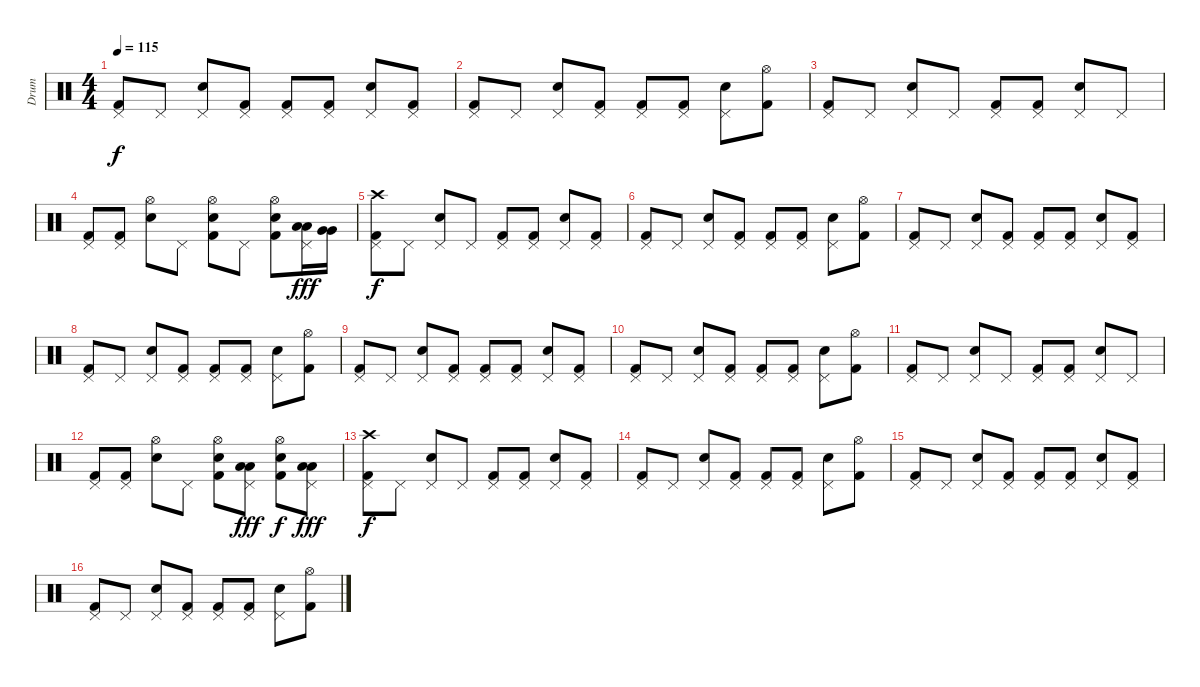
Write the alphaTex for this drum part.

\track ("Drum" "Drum") {instrument percussion}
\staff {score}
\articulation defaults
\ts (4 4)
\tempo 115
\clef neutral
\ks c
("Pedal Hi-Hat (hit)" "Kick (hit) 2").8{dy f} "Pedal Hi-Hat (hit)".8 ("Pedal Hi-Hat (hit)" "Electric Snare (hit)").8 ("Pedal Hi-Hat (hit)" "Kick (hit) 2").8 ("Pedal Hi-Hat (hit)" "Kick (hit) 2").8 ("Pedal Hi-Hat (hit)" "Kick (hit) 2").8 ("Pedal Hi-Hat (hit)" "Electric Snare (hit)").8 ("Pedal Hi-Hat (hit)" "Kick (hit) 2").8 |
("Pedal Hi-Hat (hit)" "Kick (hit) 2").8 "Pedal Hi-Hat (hit)".8 ("Pedal Hi-Hat (hit)" "Electric Snare (hit)").8 ("Pedal Hi-Hat (hit)" "Kick (hit) 2").8 ("Pedal Hi-Hat (hit)" "Kick (hit) 2").8 ("Pedal Hi-Hat (hit)" "Kick (hit) 2").8 ("Pedal Hi-Hat (hit)" "Electric Snare (hit)").8 ("Hi-Hat (open)" "Kick (hit) 2").8 |
("Pedal Hi-Hat (hit)" "Kick (hit) 2").8 "Pedal Hi-Hat (hit)".8 ("Pedal Hi-Hat (hit)" "Electric Snare (hit)").8 "Pedal Hi-Hat (hit)".8 ("Pedal Hi-Hat (hit)" "Kick (hit) 2").8 ("Pedal Hi-Hat (hit)" "Kick (hit) 2").8 ("Pedal Hi-Hat (hit)" "Electric Snare (hit)").8 "Pedal Hi-Hat (hit)".8 |
("Pedal Hi-Hat (hit)" "Kick (hit) 2").8 ("Pedal Hi-Hat (hit)" "Kick (hit) 2").8 ("Hi-Hat (open)" "Electric Snare (hit)").8 "Pedal Hi-Hat (hit)".8 ("Hi-Hat (open)" "Electric Snare (hit)" "Kick (hit) 2").8 "Pedal Hi-Hat (hit)".8 ("Hi-Hat (open)" "Electric Snare (hit)" "Kick (hit) 2").8 ("Pedal Hi-Hat (hit)" "Low Tom (hit)" "Low Tom (hit)").16{dy fff} ("Very Low Tom (hit)" "Very Low Tom (hit)").16 |
("Pedal Hi-Hat (hit)" "Crash high (hit)" "Kick (hit) 2").8{dy f} "Pedal Hi-Hat (hit)".8 ("Pedal Hi-Hat (hit)" "Electric Snare (hit)").8 "Pedal Hi-Hat (hit)".8 ("Pedal Hi-Hat (hit)" "Kick (hit) 2").8 ("Pedal Hi-Hat (hit)" "Kick (hit) 2").8 ("Pedal Hi-Hat (hit)" "Electric Snare (hit)").8 ("Pedal Hi-Hat (hit)" "Kick (hit) 2").8 |
("Pedal Hi-Hat (hit)" "Kick (hit) 2").8 "Pedal Hi-Hat (hit)".8 ("Pedal Hi-Hat (hit)" "Electric Snare (hit)").8 ("Pedal Hi-Hat (hit)" "Kick (hit) 2").8 ("Pedal Hi-Hat (hit)" "Kick (hit) 2").8 ("Pedal Hi-Hat (hit)" "Kick (hit) 2").8 ("Pedal Hi-Hat (hit)" "Electric Snare (hit)").8 ("Hi-Hat (open)" "Kick (hit) 2").8 |
("Pedal Hi-Hat (hit)" "Kick (hit) 2").8 "Pedal Hi-Hat (hit)".8 ("Pedal Hi-Hat (hit)" "Electric Snare (hit)").8 ("Pedal Hi-Hat (hit)" "Kick (hit) 2").8 ("Pedal Hi-Hat (hit)" "Kick (hit) 2").8 ("Pedal Hi-Hat (hit)" "Kick (hit) 2").8 ("Pedal Hi-Hat (hit)" "Electric Snare (hit)").8 ("Pedal Hi-Hat (hit)" "Kick (hit) 2").8 |
("Pedal Hi-Hat (hit)" "Kick (hit) 2").8 "Pedal Hi-Hat (hit)".8 ("Pedal Hi-Hat (hit)" "Electric Snare (hit)").8 ("Pedal Hi-Hat (hit)" "Kick (hit) 2").8 ("Pedal Hi-Hat (hit)" "Kick (hit) 2").8 ("Pedal Hi-Hat (hit)" "Kick (hit) 2").8 ("Pedal Hi-Hat (hit)" "Electric Snare (hit)").8 ("Hi-Hat (open)" "Kick (hit) 2").8 |
("Pedal Hi-Hat (hit)" "Kick (hit) 2").8 "Pedal Hi-Hat (hit)".8 ("Pedal Hi-Hat (hit)" "Electric Snare (hit)").8 ("Pedal Hi-Hat (hit)" "Kick (hit) 2").8 ("Pedal Hi-Hat (hit)" "Kick (hit) 2").8 ("Pedal Hi-Hat (hit)" "Kick (hit) 2").8 ("Pedal Hi-Hat (hit)" "Electric Snare (hit)").8 ("Pedal Hi-Hat (hit)" "Kick (hit) 2").8 |
("Pedal Hi-Hat (hit)" "Kick (hit) 2").8 "Pedal Hi-Hat (hit)".8 ("Pedal Hi-Hat (hit)" "Electric Snare (hit)").8 ("Pedal Hi-Hat (hit)" "Kick (hit) 2").8 ("Pedal Hi-Hat (hit)" "Kick (hit) 2").8 ("Pedal Hi-Hat (hit)" "Kick (hit) 2").8 ("Pedal Hi-Hat (hit)" "Electric Snare (hit)").8 ("Hi-Hat (open)" "Kick (hit) 2").8 |
("Pedal Hi-Hat (hit)" "Kick (hit) 2").8 "Pedal Hi-Hat (hit)".8 ("Pedal Hi-Hat (hit)" "Electric Snare (hit)").8 "Pedal Hi-Hat (hit)".8 ("Pedal Hi-Hat (hit)" "Kick (hit) 2").8 ("Pedal Hi-Hat (hit)" "Kick (hit) 2").8 ("Pedal Hi-Hat (hit)" "Electric Snare (hit)").8 "Pedal Hi-Hat (hit)".8 |
("Pedal Hi-Hat (hit)" "Kick (hit) 2").8 ("Pedal Hi-Hat (hit)" "Kick (hit) 2").8 ("Hi-Hat (open)" "Electric Snare (hit)").8 "Pedal Hi-Hat (hit)".8 ("Hi-Hat (open)" "Electric Snare (hit)" "Kick (hit) 2").8 ("Pedal Hi-Hat (hit)" "Low Tom (hit)" "Low Tom (hit)").8{dy fff} ("Hi-Hat (open)" "Electric Snare (hit)" "Kick (hit) 2").8{dy f} ("Pedal Hi-Hat (hit)" "Low Tom (hit)" "Low Tom (hit)").8{dy fff} |
("Pedal Hi-Hat (hit)" "Crash high (hit)" "Kick (hit) 2").8{dy f} "Pedal Hi-Hat (hit)".8 ("Pedal Hi-Hat (hit)" "Electric Snare (hit)").8 "Pedal Hi-Hat (hit)".8 ("Pedal Hi-Hat (hit)" "Kick (hit) 2").8 ("Pedal Hi-Hat (hit)" "Kick (hit) 2").8 ("Pedal Hi-Hat (hit)" "Electric Snare (hit)").8 ("Pedal Hi-Hat (hit)" "Kick (hit) 2").8 |
("Pedal Hi-Hat (hit)" "Kick (hit) 2").8 "Pedal Hi-Hat (hit)".8 ("Pedal Hi-Hat (hit)" "Electric Snare (hit)").8 ("Pedal Hi-Hat (hit)" "Kick (hit) 2").8 ("Pedal Hi-Hat (hit)" "Kick (hit) 2").8 ("Pedal Hi-Hat (hit)" "Kick (hit) 2").8 ("Pedal Hi-Hat (hit)" "Electric Snare (hit)").8 ("Hi-Hat (open)" "Kick (hit) 2").8 |
("Pedal Hi-Hat (hit)" "Kick (hit) 2").8 "Pedal Hi-Hat (hit)".8 ("Pedal Hi-Hat (hit)" "Electric Snare (hit)").8 ("Pedal Hi-Hat (hit)" "Kick (hit) 2").8 ("Pedal Hi-Hat (hit)" "Kick (hit) 2").8 ("Pedal Hi-Hat (hit)" "Kick (hit) 2").8 ("Pedal Hi-Hat (hit)" "Electric Snare (hit)").8 ("Pedal Hi-Hat (hit)" "Kick (hit) 2").8 |
("Pedal Hi-Hat (hit)" "Kick (hit) 2").8 "Pedal Hi-Hat (hit)".8 ("Pedal Hi-Hat (hit)" "Electric Snare (hit)").8 ("Pedal Hi-Hat (hit)" "Kick (hit) 2").8 ("Pedal Hi-Hat (hit)" "Kick (hit) 2").8 ("Pedal Hi-Hat (hit)" "Kick (hit) 2").8 ("Pedal Hi-Hat (hit)" "Electric Snare (hit)").8 ("Hi-Hat (open)" "Kick (hit) 2").8
